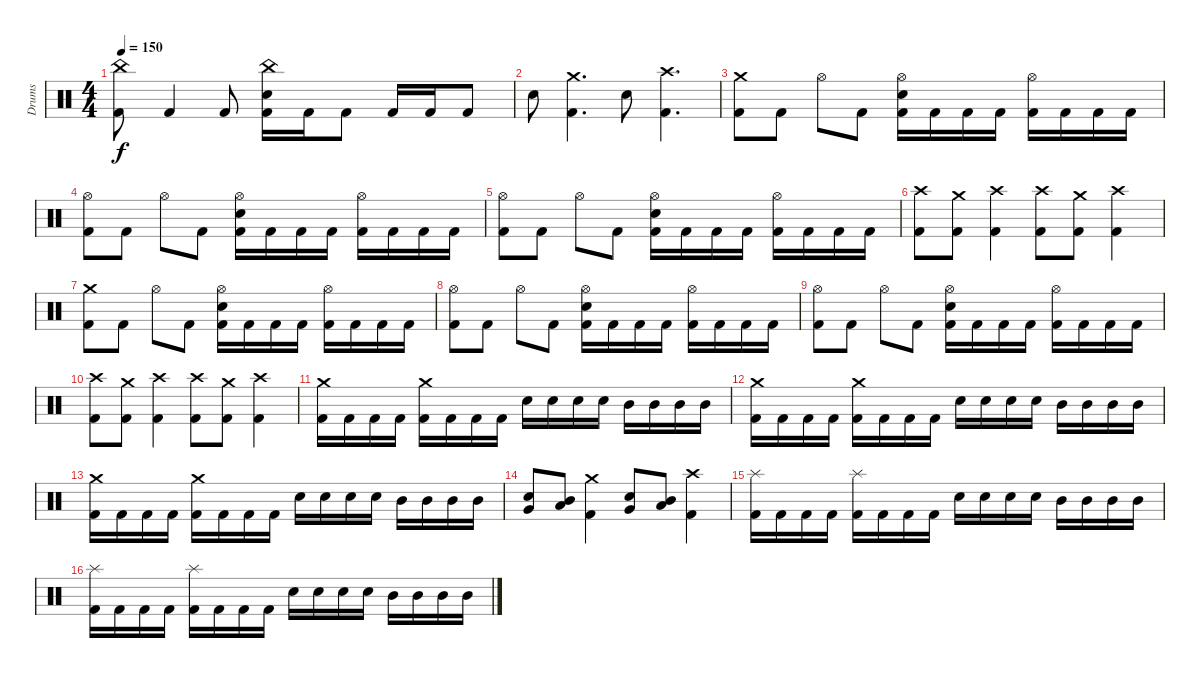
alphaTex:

\track ("Drums" "Drums") {instrument percussion}
\staff {score}
\articulation defaults
\ts (4 4)
\tempo 150
\clef neutral
\ks c
("China (hit)" "Kick (hit) 2").8{dy f} "Kick (hit) 2".4 "Kick (hit) 2".8 ("China (hit)" "Electric Snare (hit)" "Kick (hit) 2").16 "Kick (hit) 2".16 "Kick (hit) 2".8 "Kick (hit) 2".16 "Kick (hit) 2".16 "Kick (hit) 2".8 |
"Electric Snare (hit)".8 ("Crash medium (hit)" "Kick (hit) 2").4{d} "Electric Snare (hit)".8 ("Crash high (hit)" "Kick (hit) 2").4{d} |
("Crash medium (hit)" "Kick (hit) 2").8 "Kick (hit) 2".8 "Hi-Hat (open)".8 "Kick (hit) 2".8 ("Hi-Hat (open)" "Electric Snare (hit)" "Kick (hit) 2").16 "Kick (hit) 2".16 "Kick (hit) 2".16 "Kick (hit) 2".16 ("Hi-Hat (open)" "Kick (hit) 2").16 "Kick (hit) 2".16 "Kick (hit) 2".16 "Kick (hit) 2".16 |
("Hi-Hat (open)" "Kick (hit) 2").8 "Kick (hit) 2".8 "Hi-Hat (open)".8 "Kick (hit) 2".8 ("Hi-Hat (open)" "Electric Snare (hit)" "Kick (hit) 2").16 "Kick (hit) 2".16 "Kick (hit) 2".16 "Kick (hit) 2".16 ("Hi-Hat (open)" "Kick (hit) 2").16 "Kick (hit) 2".16 "Kick (hit) 2".16 "Kick (hit) 2".16 |
("Hi-Hat (open)" "Kick (hit) 2").8 "Kick (hit) 2".8 "Hi-Hat (open)".8 "Kick (hit) 2".8 ("Hi-Hat (open)" "Electric Snare (hit)" "Kick (hit) 2").16 "Kick (hit) 2".16 "Kick (hit) 2".16 "Kick (hit) 2".16 ("Hi-Hat (open)" "Kick (hit) 2").16 "Kick (hit) 2".16 "Kick (hit) 2".16 "Kick (hit) 2".16 |
("Crash high (hit)" "Kick (hit) 2").8 ("Crash medium (hit)" "Kick (hit) 2").8 ("Crash high (hit)" "Kick (hit) 2").4 ("Crash high (hit)" "Kick (hit) 2").8 ("Crash medium (hit)" "Kick (hit) 2").8 ("Crash high (hit)" "Kick (hit) 2").4 |
("Crash medium (hit)" "Kick (hit) 2").8 "Kick (hit) 2".8 "Hi-Hat (open)".8 "Kick (hit) 2".8 ("Hi-Hat (open)" "Electric Snare (hit)" "Kick (hit) 2").16 "Kick (hit) 2".16 "Kick (hit) 2".16 "Kick (hit) 2".16 ("Hi-Hat (open)" "Kick (hit) 2").16 "Kick (hit) 2".16 "Kick (hit) 2".16 "Kick (hit) 2".16 |
("Hi-Hat (open)" "Kick (hit) 2").8 "Kick (hit) 2".8 "Hi-Hat (open)".8 "Kick (hit) 2".8 ("Hi-Hat (open)" "Electric Snare (hit)" "Kick (hit) 2").16 "Kick (hit) 2".16 "Kick (hit) 2".16 "Kick (hit) 2".16 ("Hi-Hat (open)" "Kick (hit) 2").16 "Kick (hit) 2".16 "Kick (hit) 2".16 "Kick (hit) 2".16 |
("Hi-Hat (open)" "Kick (hit) 2").8 "Kick (hit) 2".8 "Hi-Hat (open)".8 "Kick (hit) 2".8 ("Hi-Hat (open)" "Electric Snare (hit)" "Kick (hit) 2").16 "Kick (hit) 2".16 "Kick (hit) 2".16 "Kick (hit) 2".16 ("Hi-Hat (open)" "Kick (hit) 2").16 "Kick (hit) 2".16 "Kick (hit) 2".16 "Kick (hit) 2".16 |
("Crash high (hit)" "Kick (hit) 2").8 ("Crash medium (hit)" "Kick (hit) 2").8 ("Crash high (hit)" "Kick (hit) 2").4 ("Crash high (hit)" "Kick (hit) 2").8 ("Crash medium (hit)" "Kick (hit) 2").8 ("Crash high (hit)" "Kick (hit) 2").4 |
("Crash medium (hit)" "Kick (hit) 2").16 "Kick (hit) 2".16 "Kick (hit) 2".16 "Kick (hit) 2".16 ("Crash medium (hit)" "Kick (hit) 2").16 "Kick (hit) 2".16 "Kick (hit) 2".16 "Kick (hit) 2".16 "Electric Snare (hit)".16 "Electric Snare (hit)".16 "Electric Snare (hit)".16 "Electric Snare (hit)".16 "Mid Tom (hit)".16 "Mid Tom (hit)".16 "Mid Tom (hit)".16 "Mid Tom (hit)".16 |
("Crash medium (hit)" "Kick (hit) 2").16 "Kick (hit) 2".16 "Kick (hit) 2".16 "Kick (hit) 2".16 ("Crash medium (hit)" "Kick (hit) 2").16 "Kick (hit) 2".16 "Kick (hit) 2".16 "Kick (hit) 2".16 "Electric Snare (hit)".16 "Electric Snare (hit)".16 "Electric Snare (hit)".16 "Electric Snare (hit)".16 "Mid Tom (hit)".16 "Mid Tom (hit)".16 "Mid Tom (hit)".16 "Mid Tom (hit)".16 |
("Crash medium (hit)" "Kick (hit) 2").16 "Kick (hit) 2".16 "Kick (hit) 2".16 "Kick (hit) 2".16 ("Crash medium (hit)" "Kick (hit) 2").16 "Kick (hit) 2".16 "Kick (hit) 2".16 "Kick (hit) 2".16 "Electric Snare (hit)".16 "Electric Snare (hit)".16 "Electric Snare (hit)".16 "Electric Snare (hit)".16 "Mid Tom (hit)".16 "Mid Tom (hit)".16 "Mid Tom (hit)".16 "Mid Tom (hit)".16 |
("Electric Snare (hit)" "Very Low Tom (hit)").8 ("Mid Tom (hit)" "Low Tom (hit)").8 ("Crash medium (hit)" "Kick (hit) 2").4 ("Electric Snare (hit)" "Very Low Tom (hit)").8 ("Mid Tom (hit)" "Low Tom (hit)").8 ("Crash high (hit)" "Kick (hit) 2").4 |
("Splash (hit)" "Kick (hit) 2").16 "Kick (hit) 2".16 "Kick (hit) 2".16 "Kick (hit) 2".16 ("Splash (hit)" "Kick (hit) 2").16 "Kick (hit) 2".16 "Kick (hit) 2".16 "Kick (hit) 2".16 "Electric Snare (hit)".16 "Electric Snare (hit)".16 "Electric Snare (hit)".16 "Electric Snare (hit)".16 "Mid Tom (hit)".16 "Mid Tom (hit)".16 "Mid Tom (hit)".16 "Mid Tom (hit)".16 |
("Splash (hit)" "Kick (hit) 2").16 "Kick (hit) 2".16 "Kick (hit) 2".16 "Kick (hit) 2".16 ("Splash (hit)" "Kick (hit) 2").16 "Kick (hit) 2".16 "Kick (hit) 2".16 "Kick (hit) 2".16 "Electric Snare (hit)".16 "Electric Snare (hit)".16 "Electric Snare (hit)".16 "Electric Snare (hit)".16 "Mid Tom (hit)".16 "Mid Tom (hit)".16 "Mid Tom (hit)".16 "Mid Tom (hit)".16
